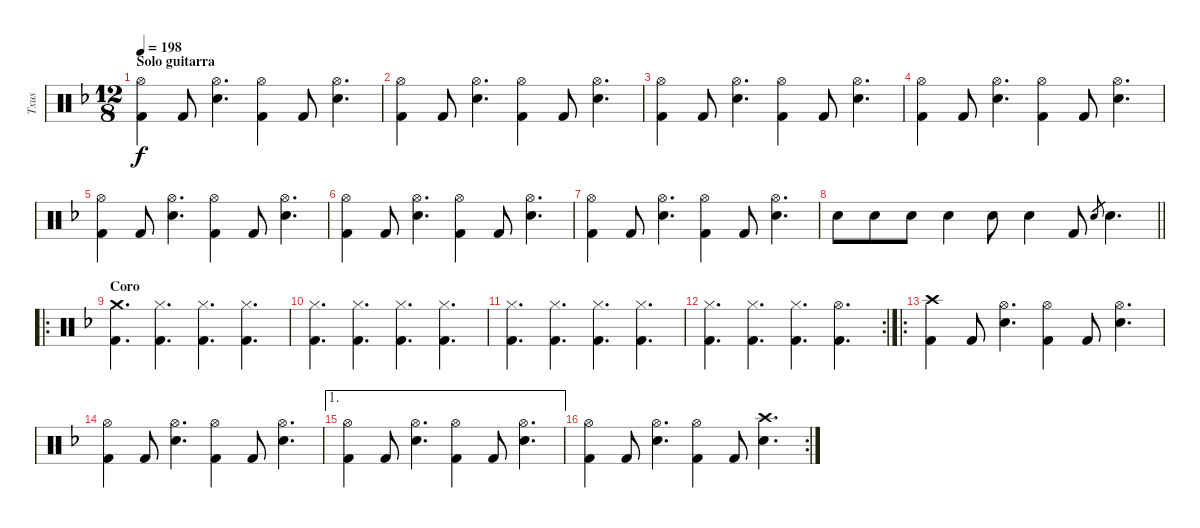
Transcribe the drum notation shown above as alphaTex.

\track ("Txus" "Txus") {instrument percussion}
\staff {score}
\articulation defaults
\ts (12 8)
\section ("" "Solo guitarra")
\tempo 198
\clef neutral
\ks dminor
("Hi-Hat (open)" "Kick (hit) 2").4{dy f} "Kick (hit) 2".8 ("Hi-Hat (open)" "Snare (hit) 2").4{d} ("Hi-Hat (open)" "Kick (hit) 2").4 "Kick (hit) 2".8 ("Hi-Hat (open)" "Snare (hit) 2").4{d} |
("Hi-Hat (open)" "Kick (hit) 2").4 "Kick (hit) 2".8 ("Hi-Hat (open)" "Snare (hit) 2").4{d} ("Hi-Hat (open)" "Kick (hit) 2").4 "Kick (hit) 2".8 ("Hi-Hat (open)" "Snare (hit) 2").4{d} |
("Hi-Hat (open)" "Kick (hit) 2").4 "Kick (hit) 2".8 ("Hi-Hat (open)" "Snare (hit) 2").4{d} ("Hi-Hat (open)" "Kick (hit) 2").4 "Kick (hit) 2".8 ("Hi-Hat (open)" "Snare (hit) 2").4{d} |
("Hi-Hat (open)" "Kick (hit) 2").4 "Kick (hit) 2".8 ("Hi-Hat (open)" "Snare (hit) 2").4{d} ("Hi-Hat (open)" "Kick (hit) 2").4 "Kick (hit) 2".8 ("Hi-Hat (open)" "Snare (hit) 2").4{d} |
("Hi-Hat (open)" "Kick (hit) 2").4 "Kick (hit) 2".8 ("Hi-Hat (open)" "Snare (hit) 2").4{d} ("Hi-Hat (open)" "Kick (hit) 2").4 "Kick (hit) 2".8 ("Hi-Hat (open)" "Snare (hit) 2").4{d} |
("Hi-Hat (open)" "Kick (hit) 2").4 "Kick (hit) 2".8 ("Hi-Hat (open)" "Snare (hit) 2").4{d} ("Hi-Hat (open)" "Kick (hit) 2").4 "Kick (hit) 2".8 ("Hi-Hat (open)" "Snare (hit) 2").4{d} |
("Hi-Hat (open)" "Kick (hit) 2").4 "Kick (hit) 2".8 ("Hi-Hat (open)" "Snare (hit) 2").4{d} ("Hi-Hat (open)" "Kick (hit) 2").4 "Kick (hit) 2".8 ("Hi-Hat (open)" "Snare (hit) 2").4{d} |
\barLineRight lightlight "Snare (hit) 2".8 "Snare (hit) 2".8 "Snare (hit) 2".8 "Snare (hit) 2".4 "Snare (hit) 2".8 "Snare (hit) 2".4 "Kick (hit) 2".8 "Snare (hit) 2".8{gr} "Snare (hit) 2".4{d}
|
\ro
\section ("" "Coro")
("Crash medium (hit)" "Kick (hit) 2").4{d} ("Hi-Hat (closed)" "Kick (hit) 2").4{d} ("Hi-Hat (closed)" "Kick (hit) 2").4{d} ("Hi-Hat (closed)" "Kick (hit) 2").4{d} |
("Hi-Hat (closed)" "Kick (hit) 2").4{d} ("Hi-Hat (closed)" "Kick (hit) 2").4{d} ("Hi-Hat (closed)" "Kick (hit) 2").4{d} ("Hi-Hat (closed)" "Kick (hit) 2").4{d} |
("Hi-Hat (closed)" "Kick (hit) 2").4{d} ("Hi-Hat (closed)" "Kick (hit) 2").4{d} ("Hi-Hat (closed)" "Kick (hit) 2").4{d} ("Hi-Hat (closed)" "Kick (hit) 2").4{d} |
\rc 2
("Hi-Hat (closed)" "Kick (hit) 2").4{d} ("Hi-Hat (closed)" "Kick (hit) 2").4{d} ("Hi-Hat (closed)" "Kick (hit) 2").4{d} ("Hi-Hat (open)" "Kick (hit) 2").4{d} |
\ro
("Crash high (hit)" "Kick (hit) 2").4 "Kick (hit) 2".8 ("Hi-Hat (open)" "Snare (hit) 2").4{d} ("Hi-Hat (open)" "Kick (hit) 2").4 "Kick (hit) 2".8 ("Hi-Hat (open)" "Snare (hit) 2").4{d} |
("Hi-Hat (open)" "Kick (hit) 2").4 "Kick (hit) 2".8 ("Hi-Hat (open)" "Snare (hit) 2").4{d} ("Hi-Hat (open)" "Kick (hit) 2").4 "Kick (hit) 2".8 ("Hi-Hat (open)" "Snare (hit) 2").4{d} |
\ae 1
("Hi-Hat (open)" "Kick (hit) 2").4 "Kick (hit) 2".8 ("Hi-Hat (open)" "Snare (hit) 2").4{d} ("Hi-Hat (open)" "Kick (hit) 2").4 "Kick (hit) 2".8 ("Hi-Hat (open)" "Snare (hit) 2").4{d} |
\rc 2
("Hi-Hat (open)" "Kick (hit) 2").4 "Kick (hit) 2".8 ("Hi-Hat (open)" "Snare (hit) 2").4{d} ("Hi-Hat (open)" "Kick (hit) 2").4 "Kick (hit) 2".8 ("Crash high (hit)" "Snare (hit) 2").4{d}
